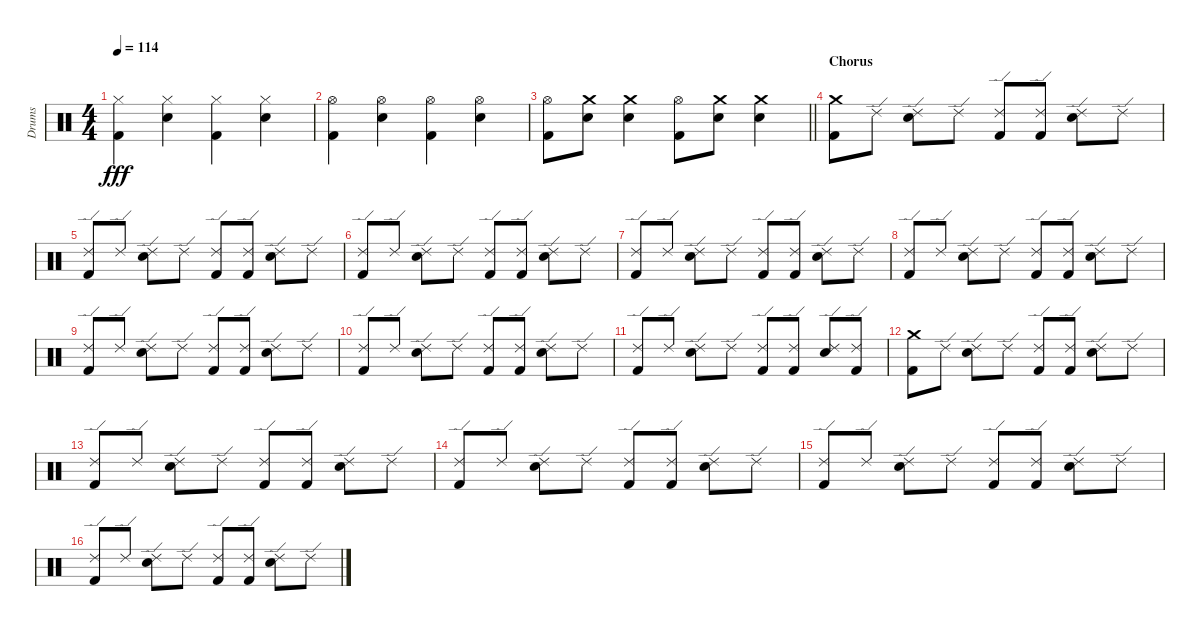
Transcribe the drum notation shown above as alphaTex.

\track ("Drums" "Drums") {instrument percussion}
\staff {score}
\articulation defaults
\ts (4 4)
\tempo 114
\clef neutral
\ks c
("Hi-Hat (closed)" "Kick (hit) 2").4{dy fff} ("Hi-Hat (closed)" "Snare (hit) 2").4 ("Hi-Hat (closed)" "Kick (hit) 2").4 ("Hi-Hat (closed)" "Snare (hit) 2").4 |
("Hi-Hat (open)" "Kick (hit) 2").4 ("Hi-Hat (open)" "Snare (hit) 2").4 ("Hi-Hat (open)" "Kick (hit) 2").4 ("Hi-Hat (open)" "Snare (hit) 2").4 |
\barLineRight lightlight
("Hi-Hat (open)" "Kick (hit) 2").8 ("Crash medium (hit)" "Snare (hit) 2").8 ("Crash medium (hit)" "Snare (hit) 2").4 ("Hi-Hat (open)" "Kick (hit) 2").8 ("Crash medium (hit)" "Snare (hit) 2").8 ("Crash medium (hit)" "Snare (hit) 2").4 |
\section ("" "Chorus")
("Crash medium (hit)" "Kick (hit) 2").8 "Ride (edge) 2".8 ("Ride (edge) 2" "Snare (hit) 2").8 "Ride (edge) 2".8 ("Ride (edge) 2" "Kick (hit) 2").8 ("Ride (edge) 2" "Kick (hit) 2").8 ("Ride (edge) 2" "Snare (hit) 2").8 "Ride (edge) 2".8 |
("Ride (edge) 2" "Kick (hit) 2").8 "Ride (edge) 2".8 ("Ride (edge) 2" "Snare (hit) 2").8 "Ride (edge) 2".8 ("Ride (edge) 2" "Kick (hit) 2").8 ("Ride (edge) 2" "Kick (hit) 2").8 ("Ride (edge) 2" "Snare (hit) 2").8 "Ride (edge) 2".8 |
("Ride (edge) 2" "Kick (hit) 2").8 "Ride (edge) 2".8 ("Ride (edge) 2" "Snare (hit) 2").8 "Ride (edge) 2".8 ("Ride (edge) 2" "Kick (hit) 2").8 ("Ride (edge) 2" "Kick (hit) 2").8 ("Ride (edge) 2" "Snare (hit) 2").8 "Ride (edge) 2".8 |
("Ride (edge) 2" "Kick (hit) 2").8 "Ride (edge) 2".8 ("Ride (edge) 2" "Snare (hit) 2").8 "Ride (edge) 2".8 ("Ride (edge) 2" "Kick (hit) 2").8 ("Ride (edge) 2" "Kick (hit) 2").8 ("Ride (edge) 2" "Snare (hit) 2").8 "Ride (edge) 2".8 |
("Ride (edge) 2" "Kick (hit) 2").8 "Ride (edge) 2".8 ("Ride (edge) 2" "Snare (hit) 2").8 "Ride (edge) 2".8 ("Ride (edge) 2" "Kick (hit) 2").8 ("Ride (edge) 2" "Kick (hit) 2").8 ("Ride (edge) 2" "Snare (hit) 2").8 "Ride (edge) 2".8 |
("Ride (edge) 2" "Kick (hit) 2").8 "Ride (edge) 2".8 ("Ride (edge) 2" "Snare (hit) 2").8 "Ride (edge) 2".8 ("Ride (edge) 2" "Kick (hit) 2").8 ("Ride (edge) 2" "Kick (hit) 2").8 ("Ride (edge) 2" "Snare (hit) 2").8 "Ride (edge) 2".8 |
("Ride (edge) 2" "Kick (hit) 2").8 "Ride (edge) 2".8 ("Ride (edge) 2" "Snare (hit) 2").8 "Ride (edge) 2".8 ("Ride (edge) 2" "Kick (hit) 2").8 ("Ride (edge) 2" "Kick (hit) 2").8 ("Ride (edge) 2" "Snare (hit) 2").8 "Ride (edge) 2".8 |
("Ride (edge) 2" "Kick (hit) 2").8 "Ride (edge) 2".8 ("Ride (edge) 2" "Snare (hit) 2").8 "Ride (edge) 2".8 ("Ride (edge) 2" "Kick (hit) 2").8 ("Ride (edge) 2" "Kick (hit) 2").8 ("Ride (edge) 2" "Snare (hit) 2").8 ("Ride (edge) 2" "Kick (hit) 2").8 |
("Crash medium (hit)" "Kick (hit) 2").8 "Ride (edge) 2".8 ("Ride (edge) 2" "Snare (hit) 2").8 "Ride (edge) 2".8 ("Ride (edge) 2" "Kick (hit) 2").8 ("Ride (edge) 2" "Kick (hit) 2").8 ("Ride (edge) 2" "Snare (hit) 2").8 "Ride (edge) 2".8 |
("Ride (edge) 2" "Kick (hit) 2").8 "Ride (edge) 2".8 ("Ride (edge) 2" "Snare (hit) 2").8 "Ride (edge) 2".8 ("Ride (edge) 2" "Kick (hit) 2").8 ("Ride (edge) 2" "Kick (hit) 2").8 ("Ride (edge) 2" "Snare (hit) 2").8 "Ride (edge) 2".8 |
("Ride (edge) 2" "Kick (hit) 2").8 "Ride (edge) 2".8 ("Ride (edge) 2" "Snare (hit) 2").8 "Ride (edge) 2".8 ("Ride (edge) 2" "Kick (hit) 2").8 ("Ride (edge) 2" "Kick (hit) 2").8 ("Ride (edge) 2" "Snare (hit) 2").8 "Ride (edge) 2".8 |
("Ride (edge) 2" "Kick (hit) 2").8 "Ride (edge) 2".8 ("Ride (edge) 2" "Snare (hit) 2").8 "Ride (edge) 2".8 ("Ride (edge) 2" "Kick (hit) 2").8 ("Ride (edge) 2" "Kick (hit) 2").8 ("Ride (edge) 2" "Snare (hit) 2").8 "Ride (edge) 2".8 |
("Ride (edge) 2" "Kick (hit) 2").8 "Ride (edge) 2".8 ("Ride (edge) 2" "Snare (hit) 2").8 "Ride (edge) 2".8 ("Ride (edge) 2" "Kick (hit) 2").8 ("Ride (edge) 2" "Kick (hit) 2").8 ("Ride (edge) 2" "Snare (hit) 2").8 "Ride (edge) 2".8
